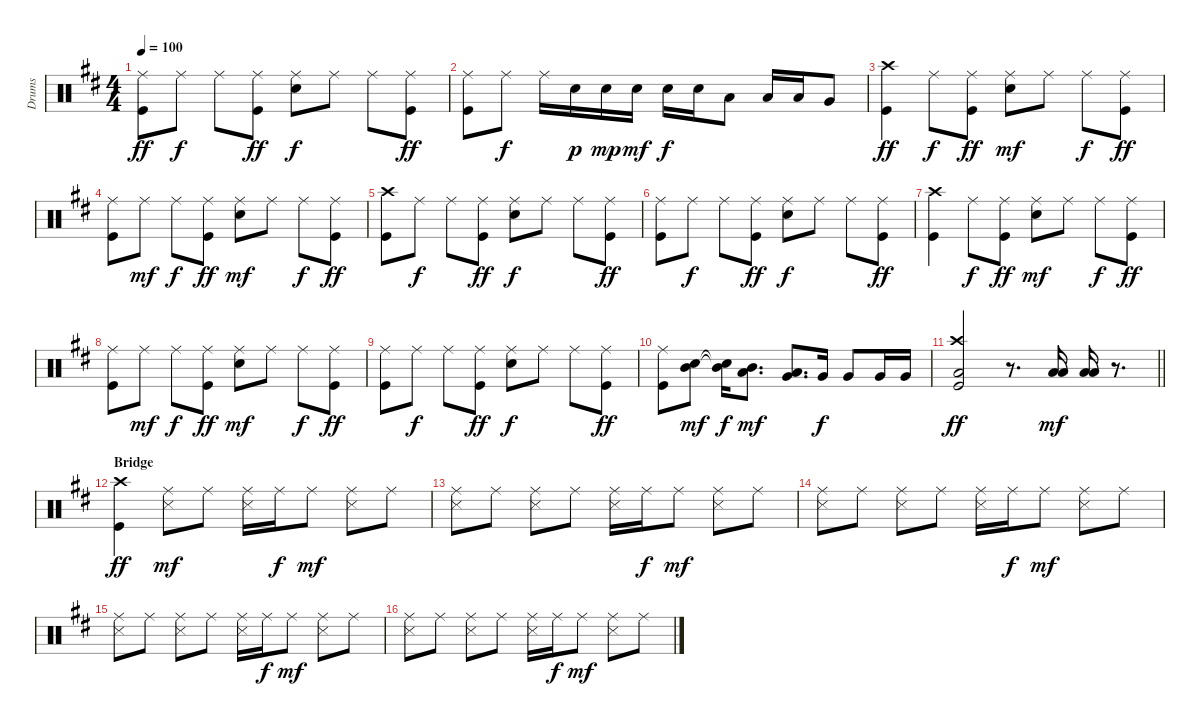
\track ("Drums" "Drums") {instrument percussion}
\staff {score}
\articulation defaults
\ts (4 4)
\tempo 100
\clef neutral
\ks d
("Ride (middle)" "Kick (hit)").8{dy ff} "Ride (middle)".8{dy f} "Ride (middle)".8 ("Ride (middle)" "Kick (hit)").8{dy ff} ("Ride (middle)" "Electric Snare (hit)").8{dy f} "Ride (middle)".8 "Ride (middle)".8 ("Ride (middle)" "Kick (hit)").8{dy ff} |
("Ride (middle)" "Kick (hit)").8 "Ride (middle)".8{dy f} "Ride (middle)".16 "Electric Snare (hit)".16{dy p} "Electric Snare (hit)".16{dy mp} "Electric Snare (hit)".16{dy mf} "Electric Snare (hit)".16{dy f} "Electric Snare (hit)".16 "Low Tom (hit)".8 "Low Tom (hit)".16 "Low Tom (hit)".16 "Very Low Tom (hit)".8 |
("Crash high (hit)" "Kick (hit)").4{dy ff} "Ride (middle)".8{dy f} ("Ride (middle)" "Kick (hit)").8{dy ff} ("Ride (middle)" "Electric Snare (hit)").8{dy mf} "Ride (middle)".8 "Ride (middle)".8{dy f} ("Ride (middle)" "Kick (hit)").8{dy ff} |
("Ride (middle)" "Kick (hit)").8 "Ride (middle)".8{dy mf} "Ride (middle)".8{dy f} ("Ride (middle)" "Kick (hit)").8{dy ff} ("Ride (middle)" "Electric Snare (hit)").8{dy mf} "Ride (middle)".8 "Ride (middle)".8{dy f} ("Ride (middle)" "Kick (hit)").8{dy ff} |
("Crash high (hit)" "Kick (hit)").8 "Ride (middle)".8{dy f} "Ride (middle)".8 ("Ride (middle)" "Kick (hit)").8{dy ff} ("Ride (middle)" "Electric Snare (hit)").8{dy f} "Ride (middle)".8 "Ride (middle)".8 ("Ride (middle)" "Kick (hit)").8{dy ff} |
("Ride (middle)" "Kick (hit)").8 "Ride (middle)".8{dy f} "Ride (middle)".8 ("Ride (middle)" "Kick (hit)").8{dy ff} ("Ride (middle)" "Electric Snare (hit)").8{dy f} "Ride (middle)".8 "Ride (middle)".8 ("Ride (middle)" "Kick (hit)").8{dy ff} |
("Crash high (hit)" "Kick (hit)").4 "Ride (middle)".8{dy f} ("Ride (middle)" "Kick (hit)").8{dy ff} ("Ride (middle)" "Electric Snare (hit)").8{dy mf} "Ride (middle)".8 "Ride (middle)".8{dy f} ("Ride (middle)" "Kick (hit)").8{dy ff} |
("Ride (middle)" "Kick (hit)").8 "Ride (middle)".8{dy mf} "Ride (middle)".8{dy f} ("Ride (middle)" "Kick (hit)").8{dy ff} ("Ride (middle)" "Electric Snare (hit)").8{dy mf} "Ride (middle)".8 "Ride (middle)".8{dy f} ("Ride (middle)" "Kick (hit)").8{dy ff} |
("Ride (middle)" "Kick (hit)").8 "Ride (middle)".8{dy f} "Ride (middle)".8 ("Ride (middle)" "Kick (hit)").8{dy ff} ("Ride (middle)" "Electric Snare (hit)").8{dy f} "Ride (middle)".8 "Ride (middle)".8 ("Ride (middle)" "Kick (hit)").8{dy ff} |
("Ride (middle)" "Kick (hit)").8 ("Electric Snare (hit)" "Mid Tom (hit)").8{dy mf} ("Electric Snare (hit)"{t} "Mid Tom (hit)"{t}).16{dy f} ("Mid Tom (hit)" "Low Tom (hit)").8{d dy mf} ("Low Tom (hit)" "Very Low Tom (hit)").8{d} "Very Low Tom (hit)".16{dy f} "Very Low Tom (hit)".8 "Very Low Tom (hit)".16 "Very Low Tom (hit)".16 |
\barLineRight lightlight
("Crash high (hit)" "Low Floor Tom (hit)" "Kick (hit)").2{dy ff} r.8{d} ("Low Floor Tom (hit)" "Low Floor Tom (hit)").16{dy mf} ("Low Floor Tom (hit)" "Low Floor Tom (hit)").16 r.8{d} |
\section ("" "Bridge")
("Crash high (hit)" "Kick (hit)").4{dy ff} ("Ride (middle)" "Snare (side stick) 3").8{dy mf} "Ride (middle)".8 ("Ride (middle)" "Snare (side stick) 3").16 "Ride (middle)".16{dy f} "Ride (middle)".8{dy mf} ("Ride (middle)" "Snare (side stick) 3").8 "Ride (middle)".8 |
("Ride (middle)" "Snare (side stick) 3").8 "Ride (middle)".8 ("Ride (middle)" "Snare (side stick) 3").8 "Ride (middle)".8 ("Ride (middle)" "Snare (side stick) 3").16 "Ride (middle)".16{dy f} "Ride (middle)".8{dy mf} ("Ride (middle)" "Snare (side stick) 3").8 "Ride (middle)".8 |
("Ride (middle)" "Snare (side stick) 3").8 "Ride (middle)".8 ("Ride (middle)" "Snare (side stick) 3").8 "Ride (middle)".8 ("Ride (middle)" "Snare (side stick) 3").16 "Ride (middle)".16{dy f} "Ride (middle)".8{dy mf} ("Ride (middle)" "Snare (side stick) 3").8 "Ride (middle)".8 |
("Ride (middle)" "Snare (side stick) 3").8 "Ride (middle)".8 ("Ride (middle)" "Snare (side stick) 3").8 "Ride (middle)".8 ("Ride (middle)" "Snare (side stick) 3").16 "Ride (middle)".16{dy f} "Ride (middle)".8{dy mf} ("Ride (middle)" "Snare (side stick) 3").8 "Ride (middle)".8 |
("Ride (middle)" "Snare (side stick) 3").8 "Ride (middle)".8 ("Ride (middle)" "Snare (side stick) 3").8 "Ride (middle)".8 ("Ride (middle)" "Snare (side stick) 3").16 "Ride (middle)".16{dy f} "Ride (middle)".8{dy mf} ("Ride (middle)" "Snare (side stick) 3").8 "Ride (middle)".8
